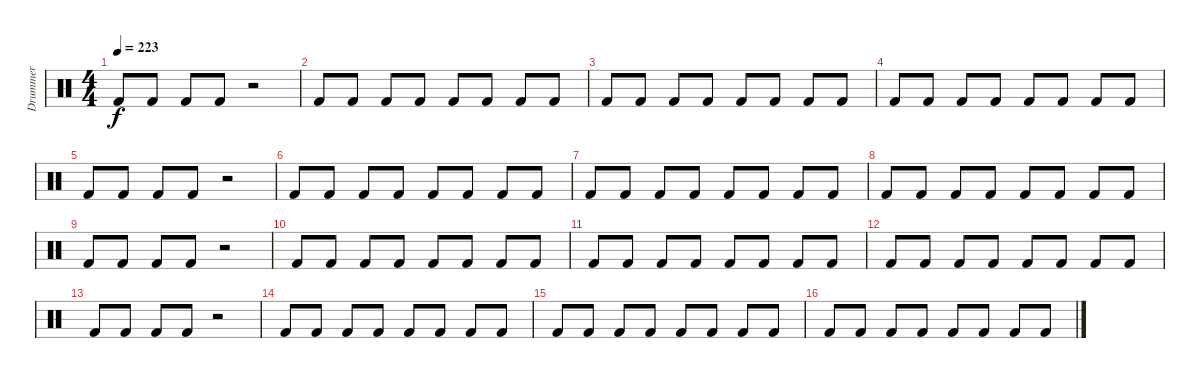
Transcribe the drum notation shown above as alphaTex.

\track ("Drummer" "Drummer") {instrument percussion}
\staff {score}
\articulation defaults
\ts (4 4)
\tempo 223
\clef neutral
\ks c "Kick (hit) 2".8{dy f} "Kick (hit) 2".8 "Kick (hit) 2".8 "Kick (hit) 2".8
r.2 |
"Kick (hit) 2".8 "Kick (hit) 2".8 "Kick (hit) 2".8 "Kick (hit) 2".8 "Kick (hit) 2".8 "Kick (hit) 2".8 "Kick (hit) 2".8 "Kick (hit) 2".8 |
"Kick (hit) 2".8 "Kick (hit) 2".8 "Kick (hit) 2".8 "Kick (hit) 2".8 "Kick (hit) 2".8 "Kick (hit) 2".8 "Kick (hit) 2".8 "Kick (hit) 2".8 |
"Kick (hit) 2".8 "Kick (hit) 2".8 "Kick (hit) 2".8 "Kick (hit) 2".8 "Kick (hit) 2".8 "Kick (hit) 2".8 "Kick (hit) 2".8 "Kick (hit) 2".8 |
"Kick (hit) 2".8 "Kick (hit) 2".8 "Kick (hit) 2".8 "Kick (hit) 2".8 r.2 |
"Kick (hit) 2".8 "Kick (hit) 2".8 "Kick (hit) 2".8 "Kick (hit) 2".8 "Kick (hit) 2".8 "Kick (hit) 2".8 "Kick (hit) 2".8 "Kick (hit) 2".8 |
"Kick (hit) 2".8 "Kick (hit) 2".8 "Kick (hit) 2".8 "Kick (hit) 2".8 "Kick (hit) 2".8 "Kick (hit) 2".8 "Kick (hit) 2".8 "Kick (hit) 2".8 |
"Kick (hit) 2".8 "Kick (hit) 2".8 "Kick (hit) 2".8 "Kick (hit) 2".8 "Kick (hit) 2".8 "Kick (hit) 2".8 "Kick (hit) 2".8 "Kick (hit) 2".8 |
"Kick (hit) 2".8 "Kick (hit) 2".8 "Kick (hit) 2".8 "Kick (hit) 2".8 r.2 |
"Kick (hit) 2".8 "Kick (hit) 2".8 "Kick (hit) 2".8 "Kick (hit) 2".8 "Kick (hit) 2".8 "Kick (hit) 2".8 "Kick (hit) 2".8 "Kick (hit) 2".8 |
"Kick (hit) 2".8 "Kick (hit) 2".8 "Kick (hit) 2".8 "Kick (hit) 2".8 "Kick (hit) 2".8 "Kick (hit) 2".8 "Kick (hit) 2".8 "Kick (hit) 2".8 |
"Kick (hit) 2".8 "Kick (hit) 2".8 "Kick (hit) 2".8 "Kick (hit) 2".8 "Kick (hit) 2".8 "Kick (hit) 2".8 "Kick (hit) 2".8 "Kick (hit) 2".8 |
"Kick (hit) 2".8 "Kick (hit) 2".8 "Kick (hit) 2".8 "Kick (hit) 2".8 r.2 |
"Kick (hit) 2".8 "Kick (hit) 2".8 "Kick (hit) 2".8 "Kick (hit) 2".8 "Kick (hit) 2".8 "Kick (hit) 2".8 "Kick (hit) 2".8 "Kick (hit) 2".8 |
"Kick (hit) 2".8 "Kick (hit) 2".8 "Kick (hit) 2".8 "Kick (hit) 2".8 "Kick (hit) 2".8 "Kick (hit) 2".8 "Kick (hit) 2".8 "Kick (hit) 2".8 |
"Kick (hit) 2".8 "Kick (hit) 2".8 "Kick (hit) 2".8 "Kick (hit) 2".8 "Kick (hit) 2".8 "Kick (hit) 2".8 "Kick (hit) 2".8 "Kick (hit) 2".8
